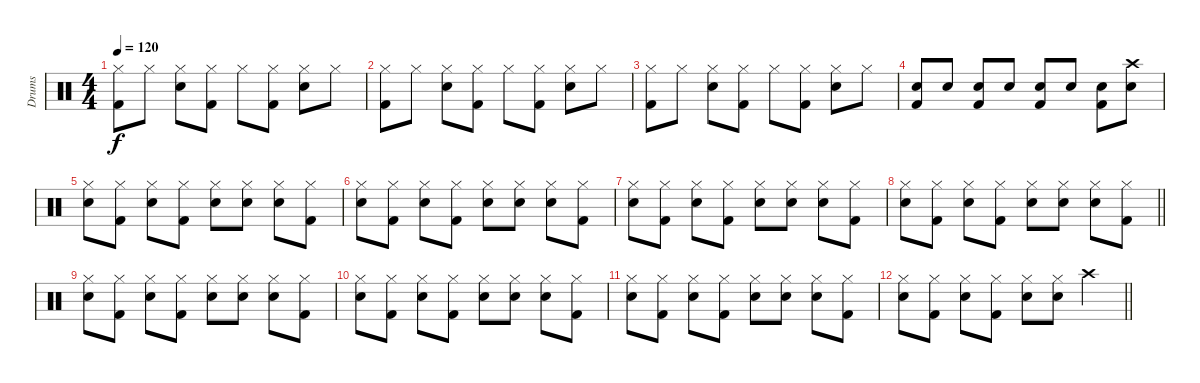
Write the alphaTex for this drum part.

\track ("Drums" "Drums") {instrument percussion}
\staff {score}
\articulation defaults
\ts (4 4)
\tempo 120
\clef neutral
\ks c
("Hi-Hat (closed)" "Kick (hit) 2").8{dy f} "Hi-Hat (closed)".8 ("Hi-Hat (closed)" "Electric Snare (hit)").8 ("Hi-Hat (closed)" "Kick (hit) 2").8 "Hi-Hat (closed)".8 ("Hi-Hat (closed)" "Kick (hit) 2").8 ("Hi-Hat (closed)" "Electric Snare (hit)").8 "Hi-Hat (closed)".8 |
("Hi-Hat (closed)" "Kick (hit) 2").8 "Hi-Hat (closed)".8 ("Hi-Hat (closed)" "Electric Snare (hit)").8 ("Hi-Hat (closed)" "Kick (hit) 2").8 "Hi-Hat (closed)".8 ("Hi-Hat (closed)" "Kick (hit) 2").8 ("Hi-Hat (closed)" "Electric Snare (hit)").8 "Hi-Hat (closed)".8 |
("Hi-Hat (closed)" "Kick (hit) 2").8 "Hi-Hat (closed)".8 ("Hi-Hat (closed)" "Electric Snare (hit)").8 ("Hi-Hat (closed)" "Kick (hit) 2").8 "Hi-Hat (closed)".8 ("Hi-Hat (closed)" "Kick (hit) 2").8 ("Hi-Hat (closed)" "Electric Snare (hit)").8 "Hi-Hat (closed)".8 |
("Electric Snare (hit)" "Kick (hit) 2").8 "Electric Snare (hit)".8 ("Electric Snare (hit)" "Kick (hit) 2").8 "Electric Snare (hit)".8 ("Electric Snare (hit)" "Kick (hit) 2").8 "Electric Snare (hit)".8 ("Electric Snare (hit)" "Kick (hit) 2").8 ("Crash high (hit)" "Electric Snare (hit)").8 |
("Hi-Hat (closed)" "Electric Snare (hit)").8 ("Hi-Hat (closed)" "Kick (hit) 2").8 ("Hi-Hat (closed)" "Electric Snare (hit)").8 ("Hi-Hat (closed)" "Kick (hit) 2").8 ("Hi-Hat (closed)" "Electric Snare (hit)").8 ("Hi-Hat (closed)" "Electric Snare (hit)").8 ("Hi-Hat (closed)" "Electric Snare (hit)").8 ("Hi-Hat (closed)" "Kick (hit) 2").8 |
("Hi-Hat (closed)" "Electric Snare (hit)").8 ("Hi-Hat (closed)" "Kick (hit) 2").8 ("Hi-Hat (closed)" "Electric Snare (hit)").8 ("Hi-Hat (closed)" "Kick (hit) 2").8 ("Hi-Hat (closed)" "Electric Snare (hit)").8 ("Hi-Hat (closed)" "Electric Snare (hit)").8 ("Hi-Hat (closed)" "Electric Snare (hit)").8 ("Hi-Hat (closed)" "Kick (hit) 2").8 |
("Hi-Hat (closed)" "Electric Snare (hit)").8 ("Hi-Hat (closed)" "Kick (hit) 2").8 ("Hi-Hat (closed)" "Electric Snare (hit)").8 ("Hi-Hat (closed)" "Kick (hit) 2").8 ("Hi-Hat (closed)" "Electric Snare (hit)").8 ("Hi-Hat (closed)" "Electric Snare (hit)").8 ("Hi-Hat (closed)" "Electric Snare (hit)").8 ("Hi-Hat (closed)" "Kick (hit) 2").8 |
\barLineRight lightlight
("Hi-Hat (closed)" "Electric Snare (hit)").8 ("Hi-Hat (closed)" "Kick (hit) 2").8 ("Hi-Hat (closed)" "Electric Snare (hit)").8 ("Hi-Hat (closed)" "Kick (hit) 2").8 ("Hi-Hat (closed)" "Electric Snare (hit)").8 ("Hi-Hat (closed)" "Electric Snare (hit)").8 ("Hi-Hat (closed)" "Electric Snare (hit)").8 ("Hi-Hat (closed)" "Kick (hit) 2").8 |
("Hi-Hat (closed)" "Electric Snare (hit)").8 ("Hi-Hat (closed)" "Kick (hit) 2").8 ("Hi-Hat (closed)" "Electric Snare (hit)").8 ("Hi-Hat (closed)" "Kick (hit) 2").8 ("Hi-Hat (closed)" "Electric Snare (hit)").8 ("Hi-Hat (closed)" "Electric Snare (hit)").8 ("Hi-Hat (closed)" "Electric Snare (hit)").8 ("Hi-Hat (closed)" "Kick (hit) 2").8 |
("Hi-Hat (closed)" "Electric Snare (hit)").8 ("Hi-Hat (closed)" "Kick (hit) 2").8 ("Hi-Hat (closed)" "Electric Snare (hit)").8 ("Hi-Hat (closed)" "Kick (hit) 2").8 ("Hi-Hat (closed)" "Electric Snare (hit)").8 ("Hi-Hat (closed)" "Electric Snare (hit)").8 ("Hi-Hat (closed)" "Electric Snare (hit)").8 ("Hi-Hat (closed)" "Kick (hit) 2").8 |
("Hi-Hat (closed)" "Electric Snare (hit)").8 ("Hi-Hat (closed)" "Kick (hit) 2").8 ("Hi-Hat (closed)" "Electric Snare (hit)").8 ("Hi-Hat (closed)" "Kick (hit) 2").8 ("Hi-Hat (closed)" "Electric Snare (hit)").8 ("Hi-Hat (closed)" "Electric Snare (hit)").8 ("Hi-Hat (closed)" "Electric Snare (hit)").8 ("Hi-Hat (closed)" "Kick (hit) 2").8 |
\barLineRight lightlight
("Hi-Hat (closed)" "Electric Snare (hit)").8 ("Hi-Hat (closed)" "Kick (hit) 2").8 ("Hi-Hat (closed)" "Electric Snare (hit)").8 ("Hi-Hat (closed)" "Kick (hit) 2").8 ("Hi-Hat (closed)" "Electric Snare (hit)").8 ("Hi-Hat (closed)" "Electric Snare (hit)").8 "Crash high (hit)".4
